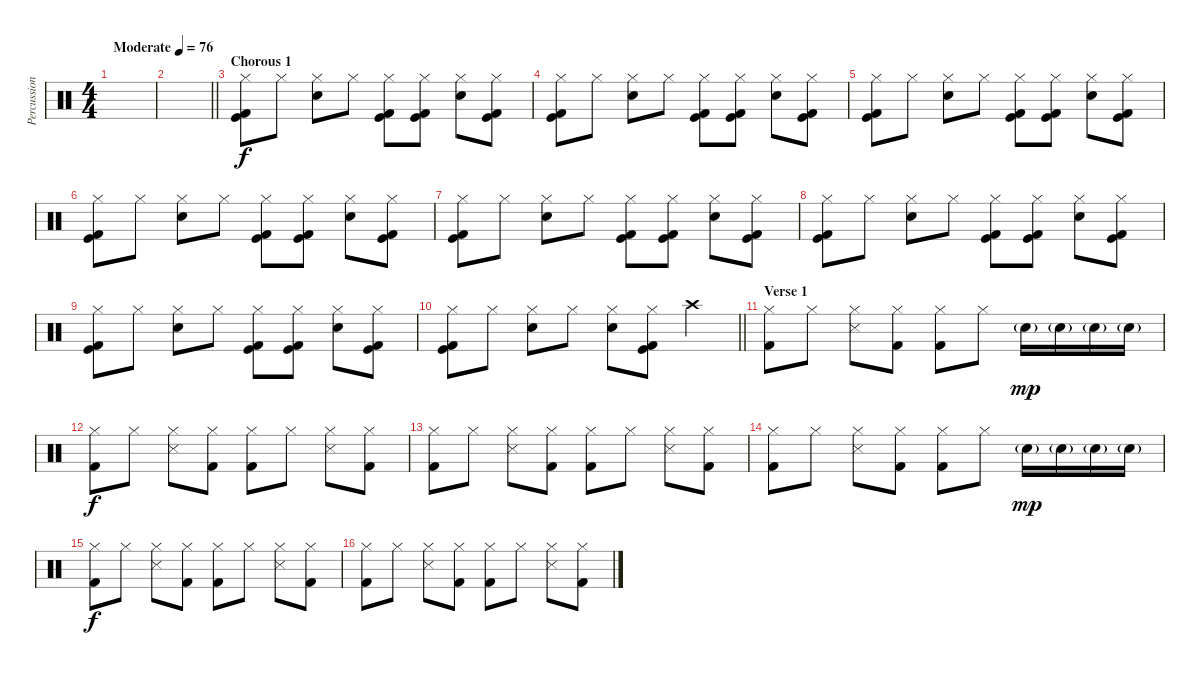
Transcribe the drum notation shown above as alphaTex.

\track ("Percussion" "Percussion") {instrument percussion}
\staff {score}
\articulation defaults
\ts (4 4)
\tempo (76 "Moderate")
\clef neutral
\ks c
|
\barLineRight lightlight
|
\section ("" "Chorous 1")
("Hi-Hat (closed)" "Kick (hit)" "Kick (hit) 2").8 "Hi-Hat (closed)".8 ("Hi-Hat (closed)" "Electric Snare (hit)").8 "Hi-Hat (closed)".8 ("Hi-Hat (closed)" "Kick (hit)" "Kick (hit) 2").8 ("Hi-Hat (closed)" "Kick (hit)" "Kick (hit) 2").8 ("Hi-Hat (closed)" "Electric Snare (hit)").8 ("Hi-Hat (closed)" "Kick (hit)" "Kick (hit) 2").8 |
("Hi-Hat (closed)" "Kick (hit)" "Kick (hit) 2").8 "Hi-Hat (closed)".8 ("Hi-Hat (closed)" "Electric Snare (hit)").8 "Hi-Hat (closed)".8 ("Hi-Hat (closed)" "Kick (hit)" "Kick (hit) 2").8 ("Hi-Hat (closed)" "Kick (hit)" "Kick (hit) 2").8 ("Hi-Hat (closed)" "Electric Snare (hit)").8 ("Hi-Hat (closed)" "Kick (hit)" "Kick (hit) 2").8 |
("Hi-Hat (closed)" "Kick (hit)" "Kick (hit) 2").8 "Hi-Hat (closed)".8 ("Hi-Hat (closed)" "Electric Snare (hit)").8 "Hi-Hat (closed)".8 ("Hi-Hat (closed)" "Kick (hit)" "Kick (hit) 2").8 ("Hi-Hat (closed)" "Kick (hit)" "Kick (hit) 2").8 ("Hi-Hat (closed)" "Electric Snare (hit)").8 ("Hi-Hat (closed)" "Kick (hit)" "Kick (hit) 2").8 |
("Hi-Hat (closed)" "Kick (hit)" "Kick (hit) 2").8 "Hi-Hat (closed)".8 ("Hi-Hat (closed)" "Electric Snare (hit)").8 "Hi-Hat (closed)".8 ("Hi-Hat (closed)" "Kick (hit)" "Kick (hit) 2").8 ("Hi-Hat (closed)" "Kick (hit)" "Kick (hit) 2").8 ("Hi-Hat (closed)" "Electric Snare (hit)").8 ("Hi-Hat (closed)" "Kick (hit)" "Kick (hit) 2").8 |
("Hi-Hat (closed)" "Kick (hit)" "Kick (hit) 2").8 "Hi-Hat (closed)".8 ("Hi-Hat (closed)" "Electric Snare (hit)").8 "Hi-Hat (closed)".8 ("Hi-Hat (closed)" "Kick (hit)" "Kick (hit) 2").8 ("Hi-Hat (closed)" "Kick (hit)" "Kick (hit) 2").8 ("Hi-Hat (closed)" "Electric Snare (hit)").8 ("Hi-Hat (closed)" "Kick (hit)" "Kick (hit) 2").8 |
("Hi-Hat (closed)" "Kick (hit)" "Kick (hit) 2").8 "Hi-Hat (closed)".8 ("Hi-Hat (closed)" "Electric Snare (hit)").8 "Hi-Hat (closed)".8 ("Hi-Hat (closed)" "Kick (hit)" "Kick (hit) 2").8 ("Hi-Hat (closed)" "Kick (hit)" "Kick (hit) 2").8 ("Hi-Hat (closed)" "Electric Snare (hit)").8 ("Hi-Hat (closed)" "Kick (hit)" "Kick (hit) 2").8 |
("Hi-Hat (closed)" "Kick (hit)" "Kick (hit) 2").8 "Hi-Hat (closed)".8 ("Hi-Hat (closed)" "Electric Snare (hit)").8 "Hi-Hat (closed)".8 ("Hi-Hat (closed)" "Kick (hit)" "Kick (hit) 2").8 ("Hi-Hat (closed)" "Kick (hit)" "Kick (hit) 2").8 ("Hi-Hat (closed)" "Electric Snare (hit)").8 ("Hi-Hat (closed)" "Kick (hit)" "Kick (hit) 2").8 |
\barLineRight lightlight
("Hi-Hat (closed)" "Kick (hit)" "Kick (hit) 2").8 "Hi-Hat (closed)".8 ("Hi-Hat (closed)" "Electric Snare (hit)").8 "Hi-Hat (closed)".8 ("Hi-Hat (closed)" "Electric Snare (hit)").8 ("Hi-Hat (closed)" "Kick (hit)" "Kick (hit) 2").8 "Crash high (hit)".4 |
\section ("" "Verse 1")
("Hi-Hat (closed)" "Kick (hit) 2").8 "Hi-Hat (closed)".8 ("Hi-Hat (closed)" "Snare (side stick) 3").8 ("Hi-Hat (closed)" "Kick (hit) 2").8 ("Hi-Hat (closed)" "Kick (hit) 2").8 "Hi-Hat (closed)".8 "Electric Snare (hit)"{g}.16{dy mp} "Electric Snare (hit)"{g}.16 "Electric Snare (hit)"{g}.16 "Electric Snare (hit)"{g}.16 |
("Hi-Hat (closed)" "Kick (hit) 2").8{dy f} "Hi-Hat (closed)".8 ("Hi-Hat (closed)" "Snare (side stick) 3").8 ("Hi-Hat (closed)" "Kick (hit) 2").8 ("Hi-Hat (closed)" "Kick (hit) 2").8 "Hi-Hat (closed)".8 ("Hi-Hat (closed)" "Snare (side stick) 3").8 ("Hi-Hat (closed)" "Kick (hit) 2").8 |
("Hi-Hat (closed)" "Kick (hit) 2").8 "Hi-Hat (closed)".8 ("Hi-Hat (closed)" "Snare (side stick) 3").8 ("Hi-Hat (closed)" "Kick (hit) 2").8 ("Hi-Hat (closed)" "Kick (hit) 2").8 "Hi-Hat (closed)".8 ("Hi-Hat (closed)" "Snare (side stick) 3").8 ("Hi-Hat (closed)" "Kick (hit) 2").8 |
("Hi-Hat (closed)" "Kick (hit) 2").8 "Hi-Hat (closed)".8 ("Hi-Hat (closed)" "Snare (side stick) 3").8 ("Hi-Hat (closed)" "Kick (hit) 2").8 ("Hi-Hat (closed)" "Kick (hit) 2").8 "Hi-Hat (closed)".8 "Electric Snare (hit)"{g}.16{dy mp} "Electric Snare (hit)"{g}.16 "Electric Snare (hit)"{g}.16 "Electric Snare (hit)"{g}.16 |
("Hi-Hat (closed)" "Kick (hit) 2").8{dy f} "Hi-Hat (closed)".8 ("Hi-Hat (closed)" "Snare (side stick) 3").8 ("Hi-Hat (closed)" "Kick (hit) 2").8 ("Hi-Hat (closed)" "Kick (hit) 2").8 "Hi-Hat (closed)".8 ("Hi-Hat (closed)" "Snare (side stick) 3").8 ("Hi-Hat (closed)" "Kick (hit) 2").8 |
("Hi-Hat (closed)" "Kick (hit) 2").8 "Hi-Hat (closed)".8 ("Hi-Hat (closed)" "Snare (side stick) 3").8 ("Hi-Hat (closed)" "Kick (hit) 2").8 ("Hi-Hat (closed)" "Kick (hit) 2").8 "Hi-Hat (closed)".8 ("Hi-Hat (closed)" "Snare (side stick) 3").8 ("Hi-Hat (closed)" "Kick (hit) 2").8
